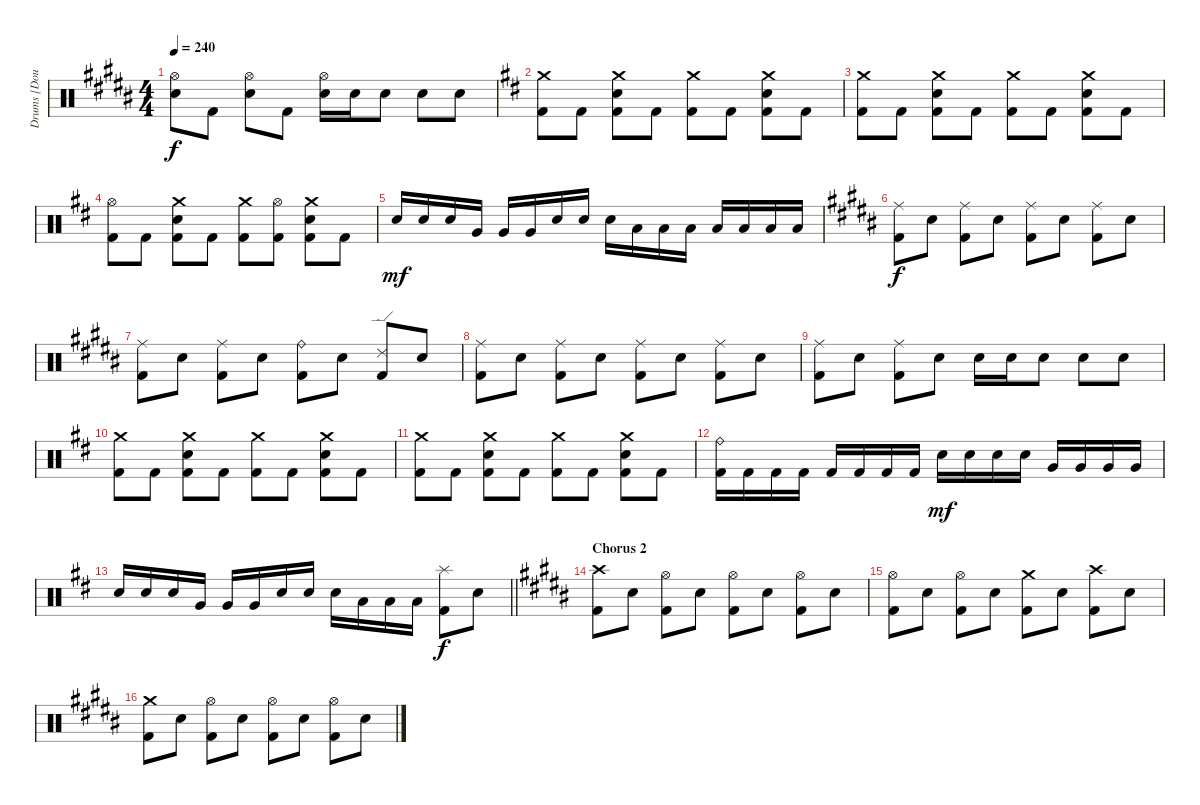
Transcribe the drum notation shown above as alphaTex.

\track ("Drums [Doug Anderson]" "Drums [Dou") {instrument percussion}
\staff {score}
\articulation defaults
\ts (4 4)
\tempo 240
\clef neutral
\ks b
("Hi-Hat (open)" "Electric Snare (hit)").8{dy f} "Kick (hit) 2".8 ("Hi-Hat (open)" "Electric Snare (hit)").8 "Kick (hit) 2".8 ("Hi-Hat (open)" "Electric Snare (hit)").16 "Electric Snare (hit)".16 "Electric Snare (hit)".8 "Electric Snare (hit)".8 "Electric Snare (hit)".8 |
\ks bminor
("Crash medium (hit)" "Kick (hit) 2").8 "Kick (hit) 2".8 ("Crash medium (hit)" "Electric Snare (hit)" "Kick (hit) 2").8 "Kick (hit) 2".8 ("Crash medium (hit)" "Kick (hit) 2").8 "Kick (hit) 2".8 ("Crash medium (hit)" "Electric Snare (hit)" "Kick (hit) 2").8 "Kick (hit) 2".8 |
("Crash medium (hit)" "Kick (hit) 2").8 "Kick (hit) 2".8 ("Crash medium (hit)" "Electric Snare (hit)" "Kick (hit) 2").8 "Kick (hit) 2".8 ("Crash medium (hit)" "Kick (hit) 2").8 "Kick (hit) 2".8 ("Crash medium (hit)" "Electric Snare (hit)" "Kick (hit) 2").8 "Kick (hit) 2".8 |
("Hi-Hat (open)" "Kick (hit) 2").8 "Kick (hit) 2".8 ("Crash medium (hit)" "Electric Snare (hit)" "Kick (hit) 2").8 "Kick (hit) 2".8 ("Crash medium (hit)" "Kick (hit) 2").8 ("Hi-Hat (open)" "Kick (hit) 2").8 ("Crash medium (hit)" "Electric Snare (hit)" "Kick (hit) 2").8 "Kick (hit) 2".8 |
"Electric Snare (hit)".16{dy mf} "Electric Snare (hit)".16 "Electric Snare (hit)".16 "Very Low Tom (hit)".16 "Very Low Tom (hit)".16 "Very Low Tom (hit)".16 "Electric Snare (hit)".16 "Electric Snare (hit)".16 "Electric Snare (hit)".16 "Low Tom (hit)".16 "Low Tom (hit)".16 "Low Tom (hit)".16 "Low Floor Tom (hit)".16 "Low Floor Tom (hit)".16 "Low Floor Tom (hit)".16 "Low Floor Tom (hit)".16 |
\ks b
("Ride (middle)" "Kick (hit) 2").8{dy f} "Electric Snare (hit)".8 ("Ride (middle)" "Kick (hit) 2").8 "Electric Snare (hit)".8 ("Ride (middle)" "Kick (hit) 2").8 "Electric Snare (hit)".8 ("Ride (middle)" "Kick (hit) 2").8 "Electric Snare (hit)".8 |
("Ride (middle)" "Kick (hit) 2").8 "Electric Snare (hit)".8 ("Ride (middle)" "Kick (hit) 2").8 "Electric Snare (hit)".8 ("Ride (bell)" "Kick (hit) 2").8 "Electric Snare (hit)".8 ("Ride (edge) 2" "Kick (hit) 2").8 "Electric Snare (hit)".8 |
("Ride (middle)" "Kick (hit) 2").8 "Electric Snare (hit)".8 ("Ride (middle)" "Kick (hit) 2").8 "Electric Snare (hit)".8 ("Ride (middle)" "Kick (hit) 2").8 "Electric Snare (hit)".8 ("Ride (middle)" "Kick (hit) 2").8 "Electric Snare (hit)".8 |
("Ride (middle)" "Kick (hit) 2").8 "Electric Snare (hit)".8 ("Ride (middle)" "Kick (hit) 2").8 "Electric Snare (hit)".8 "Electric Snare (hit)".16 "Electric Snare (hit)".16 "Electric Snare (hit)".8 "Electric Snare (hit)".8 "Electric Snare (hit)".8 |
\ks bminor
("Crash medium (hit)" "Kick (hit) 2").8 "Kick (hit) 2".8 ("Crash medium (hit)" "Electric Snare (hit)" "Kick (hit) 2").8 "Kick (hit) 2".8 ("Crash medium (hit)" "Kick (hit) 2").8 "Kick (hit) 2".8 ("Crash medium (hit)" "Electric Snare (hit)" "Kick (hit) 2").8 "Kick (hit) 2".8 |
("Crash medium (hit)" "Kick (hit) 2").8 "Kick (hit) 2".8 ("Crash medium (hit)" "Electric Snare (hit)" "Kick (hit) 2").8 "Kick (hit) 2".8 ("Crash medium (hit)" "Kick (hit) 2").8 "Kick (hit) 2".8 ("Crash medium (hit)" "Electric Snare (hit)" "Kick (hit) 2").8 "Kick (hit) 2".8 |
("Ride (bell)" "Kick (hit) 2").16 "Kick (hit) 2".16 "Kick (hit) 2".16 "Kick (hit) 2".16 "Kick (hit) 2".16 "Kick (hit) 2".16 "Kick (hit) 2".16 "Kick (hit) 2".16 "Electric Snare (hit)".16{dy mf} "Electric Snare (hit)".16 "Electric Snare (hit)".16 "Electric Snare (hit)".16 "Very Low Tom (hit)".16 "Very Low Tom (hit)".16 "Very Low Tom (hit)".16 "Very Low Tom (hit)".16 |
\barLineRight lightlight "Electric Snare (hit)".16 "Electric Snare (hit)".16 "Electric Snare (hit)".16 "Very Low Tom (hit)".16 "Very Low Tom (hit)".16 "Very Low Tom (hit)".16 "Electric Snare (hit)".16 "Electric Snare (hit)".16 "Electric Snare (hit)".16 "Low Tom (hit)".16 "Low Tom (hit)".16 "Low Tom (hit)".16
("Splash (hit)" "Kick (hit) 2").8{dy f} "Electric Snare (hit)".8 |
\section ("" "Chorus 2")
\ks b
("Crash high (hit)" "Kick (hit) 2").8 "Electric Snare (hit)".8 ("Hi-Hat (open)" "Kick (hit) 2").8 "Electric Snare (hit)".8 ("Hi-Hat (open)" "Kick (hit) 2").8 "Electric Snare (hit)".8 ("Hi-Hat (open)" "Kick (hit) 2").8 "Electric Snare (hit)".8 |
("Hi-Hat (open)" "Kick (hit) 2").8 "Electric Snare (hit)".8 ("Hi-Hat (open)" "Kick (hit) 2").8 "Electric Snare (hit)".8 ("Crash medium (hit)" "Kick (hit) 2").8 "Electric Snare (hit)".8 ("Crash high (hit)" "Kick (hit) 2").8 "Electric Snare (hit)".8 |
("Crash medium (hit)" "Kick (hit) 2").8 "Electric Snare (hit)".8 ("Hi-Hat (open)" "Kick (hit) 2").8 "Electric Snare (hit)".8 ("Hi-Hat (open)" "Kick (hit) 2").8 "Electric Snare (hit)".8 ("Hi-Hat (open)" "Kick (hit) 2").8 "Electric Snare (hit)".8
